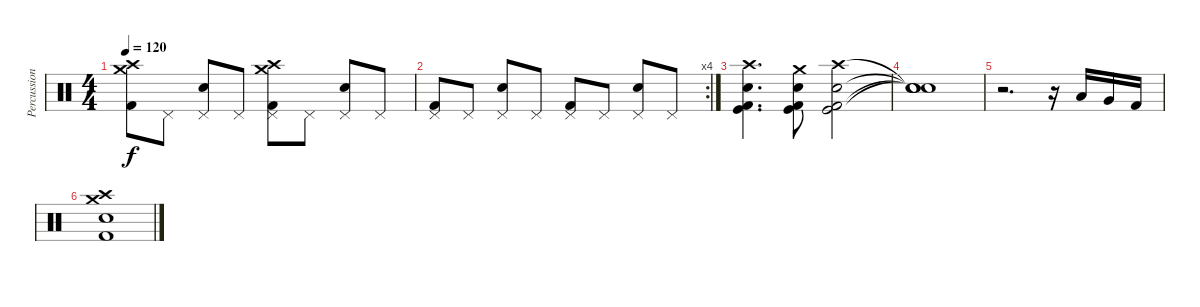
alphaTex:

\track ("Percussions" "Percussion") {instrument percussion}
\staff {score}
\articulation defaults
\ts (4 4)
\tempo 120
\clef neutral
\ks c
("Crash high (hit)" "Crash medium (hit)" "Kick (hit) 2").8{dy f} "Pedal Hi-Hat (hit)".8 ("Pedal Hi-Hat (hit)" "Snare (hit) 2").8 "Pedal Hi-Hat (hit)".8 ("Pedal Hi-Hat (hit)" "Crash high (hit)" "Crash medium (hit)" "Kick (hit) 2").8 "Pedal Hi-Hat (hit)".8 ("Pedal Hi-Hat (hit)" "Snare (hit) 2").8 "Pedal Hi-Hat (hit)".8 |
\rc 4
("Pedal Hi-Hat (hit)" "Kick (hit) 2").8 "Pedal Hi-Hat (hit)".8 ("Pedal Hi-Hat (hit)" "Snare (hit) 2").8 "Pedal Hi-Hat (hit)".8 ("Pedal Hi-Hat (hit)" "Kick (hit) 2").8 "Pedal Hi-Hat (hit)".8 ("Pedal Hi-Hat (hit)" "Snare (hit) 2").8 "Pedal Hi-Hat (hit)".8 |
("Crash high (hit)" "Kick (hit) 2" "Snare (hit) 2" "Kick (hit)").4{d} ("Crash medium (hit)" "Kick (hit) 2" "Snare (hit) 2" "Kick (hit)").8 ("Crash high (hit)" "Kick (hit) 2" "Snare (hit) 2" "Kick (hit)").2 |
("Snare (hit)"{t} "Snare (hit)"{t} "Snare (hit)"{t} "Snare (hit)"{t}).1 |
r.2{d} r.16 "Low Tom (hit)".16 "Very Low Tom (hit)".16 "Kick (hit) 2".16 |
("Kick (hit) 2" "Snare (hit) 2" "Crash high (hit)" "Crash medium (hit)").1
